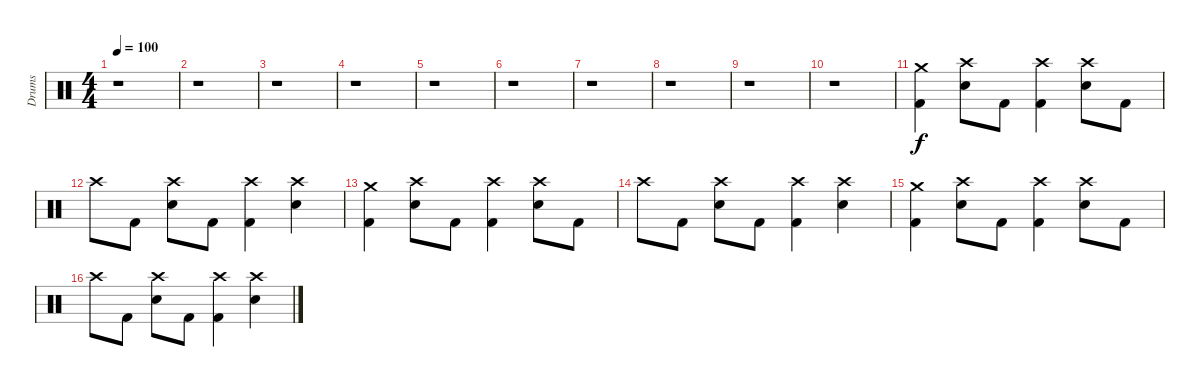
\track ("Drums" "Drums") {instrument percussion}
\staff {score}
\articulation defaults
\ts (4 4)
\tempo 100
\clef neutral
\ks c
r.1{dy f} |
r.1 |
r.1 |
r.1 |
r.1 |
r.1 |
r.1 |
r.1 |
r.1 |
r.1 |
("Kick (hit) 2" "Crash medium (hit)").4 ("Electric Snare (hit)" "Crash high (hit)").8 "Kick (hit) 2".8 ("Kick (hit) 2" "Crash high (hit)").4 ("Electric Snare (hit)" "Crash high (hit)").8 "Kick (hit) 2".8 |
"Crash high (hit)".8 "Kick (hit) 2".8 ("Electric Snare (hit)" "Crash high (hit)").8 "Kick (hit) 2".8 ("Kick (hit) 2" "Crash high (hit)").4 ("Electric Snare (hit)" "Crash high (hit)").4 |
("Kick (hit) 2" "Crash medium (hit)").4 ("Electric Snare (hit)" "Crash high (hit)").8 "Kick (hit) 2".8 ("Kick (hit) 2" "Crash high (hit)").4 ("Electric Snare (hit)" "Crash high (hit)").8 "Kick (hit) 2".8 |
"Crash high (hit)".8 "Kick (hit) 2".8 ("Electric Snare (hit)" "Crash high (hit)").8 "Kick (hit) 2".8 ("Kick (hit) 2" "Crash high (hit)").4 ("Electric Snare (hit)" "Crash high (hit)").4 |
("Kick (hit) 2" "Crash medium (hit)").4 ("Electric Snare (hit)" "Crash high (hit)").8 "Kick (hit) 2".8 ("Kick (hit) 2" "Crash high (hit)").4 ("Electric Snare (hit)" "Crash high (hit)").8 "Kick (hit) 2".8 |
"Crash high (hit)".8 "Kick (hit) 2".8 ("Electric Snare (hit)" "Crash high (hit)").8 "Kick (hit) 2".8 ("Kick (hit) 2" "Crash high (hit)").4 ("Electric Snare (hit)" "Crash high (hit)").4
